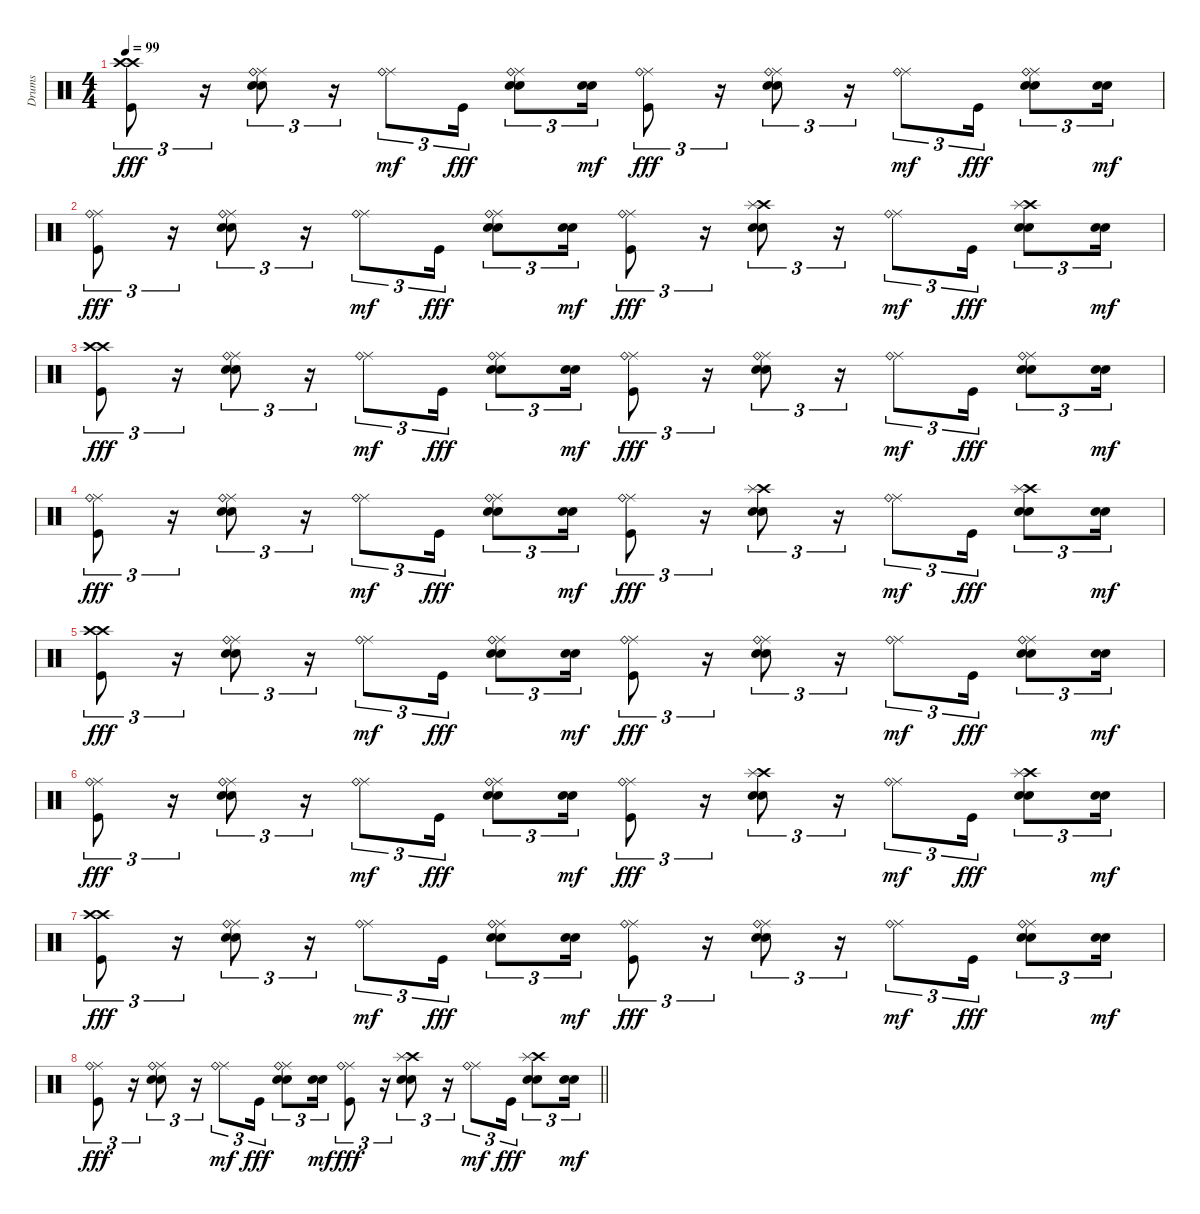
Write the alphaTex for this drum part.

\track ("Drums" "Drums") {instrument percussion}
\staff {score}
\articulation defaults
\ts (4 4)
\tempo 99
\clef neutral
\ks c
("Crash high (hit)" "Crash high (hit)" "Kick (hit)").8{tu (3 2) dy fff} r.16{tu (3 2)} ("Ride (middle)" "Ride (bell)" "Snare (hit) 2" "Electric Snare (hit)").8{tu (3 2)} r.16{tu (3 2)} ("Ride (middle)" "Ride (bell)").8{tu (3 2) dy mf} "Kick (hit)".16{tu (3 2) dy fff} ("Ride (middle)" "Ride (bell)" "Snare (hit) 2" "Electric Snare (hit)").8{tu (3 2)} ("Snare (hit) 2" "Electric Snare (hit)").16{tu (3 2) dy mf} ("Ride (middle)" "Ride (bell)" "Kick (hit)").8{tu (3 2) dy fff} r.16{tu (3 2)} ("Ride (middle)" "Ride (bell)" "Snare (hit) 2" "Electric Snare (hit)").8{tu (3 2)} r.16{tu (3 2)} ("Ride (middle)" "Ride (bell)").8{tu (3 2) dy mf} "Kick (hit)".16{tu (3 2) dy fff} ("Ride (middle)" "Ride (bell)" "Snare (hit) 2" "Electric Snare (hit)").8{tu (3 2)} ("Snare (hit) 2" "Electric Snare (hit)").16{tu (3 2) dy mf} |
("Ride (middle)" "Ride (bell)" "Kick (hit)").8{tu (3 2) dy fff} r.16{tu (3 2)} ("Ride (middle)" "Ride (bell)" "Snare (hit) 2" "Electric Snare (hit)").8{tu (3 2)} r.16{tu (3 2)} ("Ride (middle)" "Ride (bell)").8{tu (3 2) dy mf} "Kick (hit)".16{tu (3 2) dy fff} ("Ride (middle)" "Ride (bell)" "Snare (hit) 2" "Electric Snare (hit)").8{tu (3 2)} ("Snare (hit) 2" "Electric Snare (hit)").16{tu (3 2) dy mf} ("Ride (middle)" "Ride (bell)" "Kick (hit)").8{tu (3 2) dy fff} r.16{tu (3 2)} ("Crash high (hit)" "Splash (hit)" "Snare (hit) 2" "Electric Snare (hit)").8{tu (3 2)} r.16{tu (3 2)} ("Ride (middle)" "Ride (bell)").8{tu (3 2) dy mf} "Kick (hit)".16{tu (3 2) dy fff} ("Crash high (hit)" "Splash (hit)" "Snare (hit) 2" "Electric Snare (hit)").8{tu (3 2)} ("Snare (hit) 2" "Electric Snare (hit)").16{tu (3 2) dy mf} |
("Crash high (hit)" "Crash high (hit)" "Kick (hit)").8{tu (3 2) dy fff} r.16{tu (3 2)} ("Ride (middle)" "Ride (bell)" "Snare (hit) 2" "Electric Snare (hit)").8{tu (3 2)} r.16{tu (3 2)} ("Ride (middle)" "Ride (bell)").8{tu (3 2) dy mf} "Kick (hit)".16{tu (3 2) dy fff} ("Ride (middle)" "Ride (bell)" "Snare (hit) 2" "Electric Snare (hit)").8{tu (3 2)} ("Snare (hit) 2" "Electric Snare (hit)").16{tu (3 2) dy mf} ("Ride (middle)" "Ride (bell)" "Kick (hit)").8{tu (3 2) dy fff} r.16{tu (3 2)} ("Ride (middle)" "Ride (bell)" "Snare (hit) 2" "Electric Snare (hit)").8{tu (3 2)} r.16{tu (3 2)} ("Ride (middle)" "Ride (bell)").8{tu (3 2) dy mf} "Kick (hit)".16{tu (3 2) dy fff} ("Ride (middle)" "Ride (bell)" "Snare (hit) 2" "Electric Snare (hit)").8{tu (3 2)} ("Snare (hit) 2" "Electric Snare (hit)").16{tu (3 2) dy mf} |
("Ride (middle)" "Ride (bell)" "Kick (hit)").8{tu (3 2) dy fff} r.16{tu (3 2)} ("Ride (middle)" "Ride (bell)" "Snare (hit) 2" "Electric Snare (hit)").8{tu (3 2)} r.16{tu (3 2)} ("Ride (middle)" "Ride (bell)").8{tu (3 2) dy mf} "Kick (hit)".16{tu (3 2) dy fff} ("Ride (middle)" "Ride (bell)" "Snare (hit) 2" "Electric Snare (hit)").8{tu (3 2)} ("Snare (hit) 2" "Electric Snare (hit)").16{tu (3 2) dy mf} ("Ride (middle)" "Ride (bell)" "Kick (hit)").8{tu (3 2) dy fff} r.16{tu (3 2)} ("Crash high (hit)" "Splash (hit)" "Snare (hit) 2" "Electric Snare (hit)").8{tu (3 2)} r.16{tu (3 2)} ("Ride (middle)" "Ride (bell)").8{tu (3 2) dy mf} "Kick (hit)".16{tu (3 2) dy fff} ("Crash high (hit)" "Splash (hit)" "Snare (hit) 2" "Electric Snare (hit)").8{tu (3 2)} ("Snare (hit) 2" "Electric Snare (hit)").16{tu (3 2) dy mf} |
("Crash high (hit)" "Crash high (hit)" "Kick (hit)").8{tu (3 2) dy fff} r.16{tu (3 2)} ("Ride (middle)" "Ride (bell)" "Snare (hit) 2" "Electric Snare (hit)").8{tu (3 2)} r.16{tu (3 2)} ("Ride (middle)" "Ride (bell)").8{tu (3 2) dy mf} "Kick (hit)".16{tu (3 2) dy fff} ("Ride (middle)" "Ride (bell)" "Snare (hit) 2" "Electric Snare (hit)").8{tu (3 2)} ("Snare (hit) 2" "Electric Snare (hit)").16{tu (3 2) dy mf} ("Ride (middle)" "Ride (bell)" "Kick (hit)").8{tu (3 2) dy fff} r.16{tu (3 2)} ("Ride (middle)" "Ride (bell)" "Snare (hit) 2" "Electric Snare (hit)").8{tu (3 2)} r.16{tu (3 2)} ("Ride (middle)" "Ride (bell)").8{tu (3 2) dy mf} "Kick (hit)".16{tu (3 2) dy fff} ("Ride (middle)" "Ride (bell)" "Snare (hit) 2" "Electric Snare (hit)").8{tu (3 2)} ("Snare (hit) 2" "Electric Snare (hit)").16{tu (3 2) dy mf} |
("Ride (middle)" "Ride (bell)" "Kick (hit)").8{tu (3 2) dy fff} r.16{tu (3 2)} ("Ride (middle)" "Ride (bell)" "Snare (hit) 2" "Electric Snare (hit)").8{tu (3 2)} r.16{tu (3 2)} ("Ride (middle)" "Ride (bell)").8{tu (3 2) dy mf} "Kick (hit)".16{tu (3 2) dy fff} ("Ride (middle)" "Ride (bell)" "Snare (hit) 2" "Electric Snare (hit)").8{tu (3 2)} ("Snare (hit) 2" "Electric Snare (hit)").16{tu (3 2) dy mf} ("Ride (middle)" "Ride (bell)" "Kick (hit)").8{tu (3 2) dy fff} r.16{tu (3 2)} ("Crash high (hit)" "Splash (hit)" "Snare (hit) 2" "Electric Snare (hit)").8{tu (3 2)} r.16{tu (3 2)} ("Ride (middle)" "Ride (bell)").8{tu (3 2) dy mf} "Kick (hit)".16{tu (3 2) dy fff} ("Crash high (hit)" "Splash (hit)" "Snare (hit) 2" "Electric Snare (hit)").8{tu (3 2)} ("Snare (hit) 2" "Electric Snare (hit)").16{tu (3 2) dy mf} |
("Crash high (hit)" "Crash high (hit)" "Kick (hit)").8{tu (3 2) dy fff} r.16{tu (3 2)} ("Ride (middle)" "Ride (bell)" "Snare (hit) 2" "Electric Snare (hit)").8{tu (3 2)} r.16{tu (3 2)} ("Ride (middle)" "Ride (bell)").8{tu (3 2) dy mf} "Kick (hit)".16{tu (3 2) dy fff} ("Ride (middle)" "Ride (bell)" "Snare (hit) 2" "Electric Snare (hit)").8{tu (3 2)} ("Snare (hit) 2" "Electric Snare (hit)").16{tu (3 2) dy mf} ("Ride (middle)" "Ride (bell)" "Kick (hit)").8{tu (3 2) dy fff} r.16{tu (3 2)} ("Ride (middle)" "Ride (bell)" "Snare (hit) 2" "Electric Snare (hit)").8{tu (3 2)} r.16{tu (3 2)} ("Ride (middle)" "Ride (bell)").8{tu (3 2) dy mf} "Kick (hit)".16{tu (3 2) dy fff} ("Ride (middle)" "Ride (bell)" "Snare (hit) 2" "Electric Snare (hit)").8{tu (3 2)} ("Snare (hit) 2" "Electric Snare (hit)").16{tu (3 2) dy mf} |
\barLineRight lightlight
("Ride (middle)" "Ride (bell)" "Kick (hit)").8{tu (3 2) dy fff} r.16{tu (3 2)} ("Ride (middle)" "Ride (bell)" "Snare (hit) 2" "Electric Snare (hit)").8{tu (3 2)} r.16{tu (3 2)} ("Ride (middle)" "Ride (bell)").8{tu (3 2) dy mf} "Kick (hit)".16{tu (3 2) dy fff} ("Ride (middle)" "Ride (bell)" "Snare (hit) 2" "Electric Snare (hit)").8{tu (3 2)} ("Snare (hit) 2" "Electric Snare (hit)").16{tu (3 2) dy mf} ("Ride (middle)" "Ride (bell)" "Kick (hit)").8{tu (3 2) dy fff} r.16{tu (3 2)} ("Crash high (hit)" "Splash (hit)" "Snare (hit) 2" "Electric Snare (hit)").8{tu (3 2)} r.16{tu (3 2)} ("Ride (middle)" "Ride (bell)").8{tu (3 2) dy mf} "Kick (hit)".16{tu (3 2) dy fff} ("Crash high (hit)" "Splash (hit)" "Snare (hit) 2" "Electric Snare (hit)").8{tu (3 2)} ("Snare (hit) 2" "Electric Snare (hit)").16{tu (3 2) dy mf}
